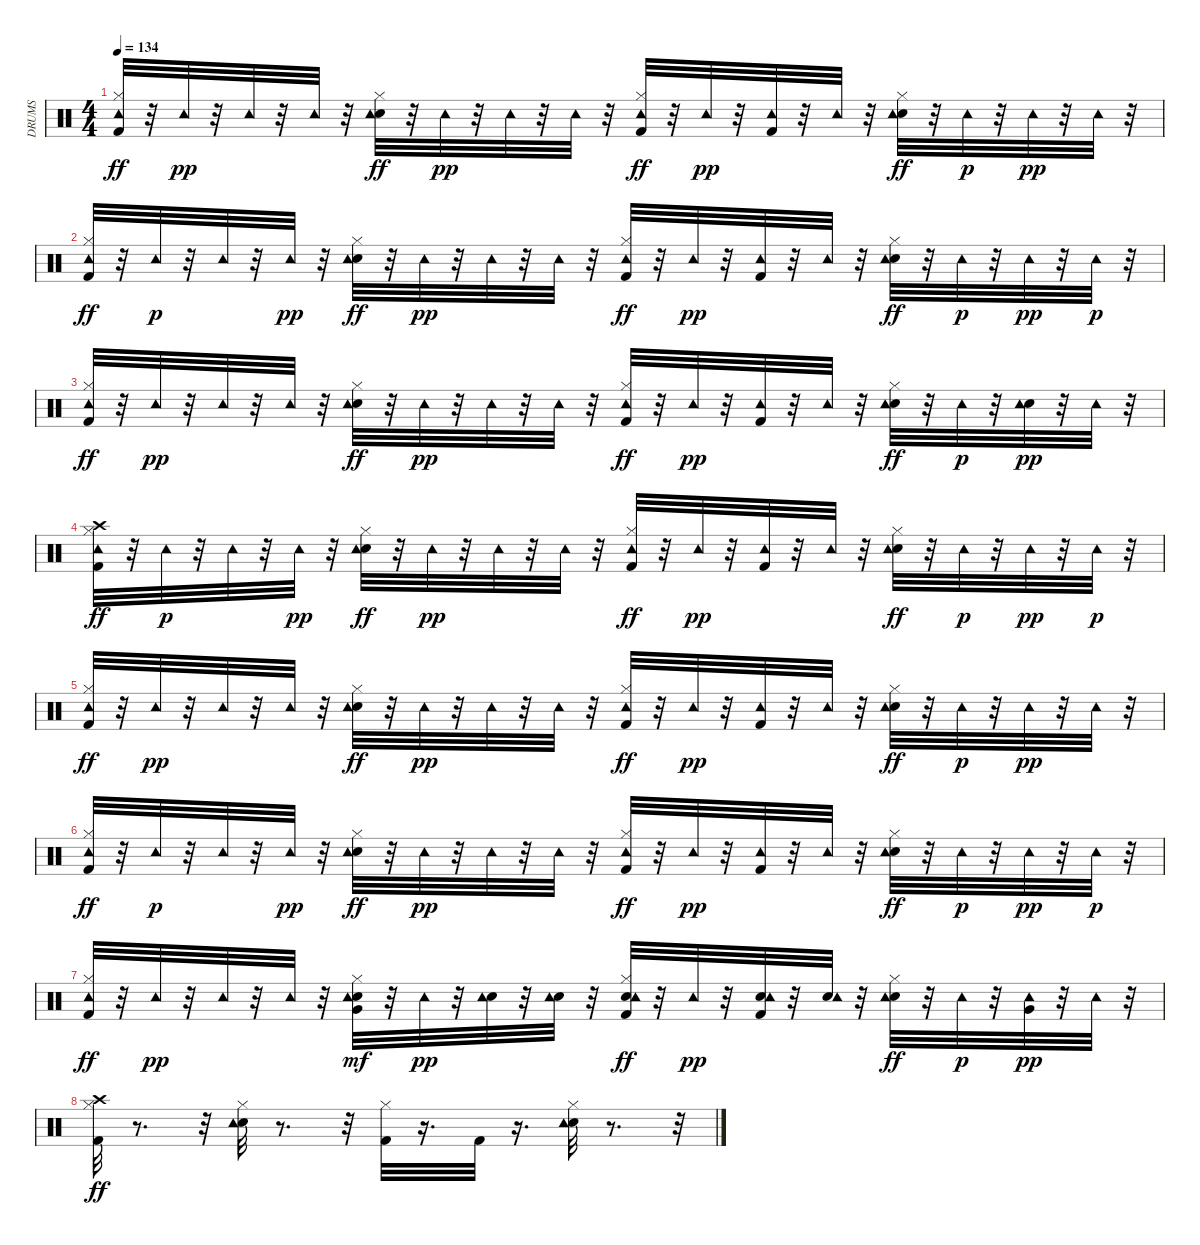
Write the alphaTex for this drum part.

\track ("DRUMS" "DRUMS") {instrument percussion}
\staff {score}
\articulation defaults
\ts (4 4)
\tempo 134
\clef neutral
\ks c
("Kick (hit) 2" "Hi-Hat (closed)" "Tambourine (hit)").32{dy ff} r.32 "Tambourine (hit)".32{dy pp} r.32 "Tambourine (hit)".32 r.32 "Tambourine (hit)".32 r.32 ("Snare (hit) 2" "Hi-Hat (closed)" "Tambourine (hit)").32{dy ff} r.32 "Tambourine (hit)".32{dy pp} r.32 "Tambourine (hit)".32 r.32 "Tambourine (hit)".32 r.32 ("Kick (hit) 2" "Hi-Hat (closed)" "Tambourine (hit)").32{dy ff} r.32 "Tambourine (hit)".32{dy pp} r.32 ("Kick (hit) 2" "Tambourine (hit)").32 r.32 "Tambourine (hit)".32 r.32 ("Snare (hit) 2" "Hi-Hat (closed)" "Tambourine (hit)").32{dy ff} r.32 "Tambourine (hit)".32{dy p} r.32 "Tambourine (hit)".32{dy pp} r.32 "Tambourine (hit)".32 r.32 |
("Kick (hit) 2" "Hi-Hat (closed)" "Tambourine (hit)").32{dy ff} r.32 "Tambourine (hit)".32{dy p} r.32 "Tambourine (hit)".32 r.32 "Tambourine (hit)".32{dy pp} r.32 ("Snare (hit) 2" "Hi-Hat (closed)" "Tambourine (hit)").32{dy ff} r.32 "Tambourine (hit)".32{dy pp} r.32 "Tambourine (hit)".32 r.32 "Tambourine (hit)".32 r.32 ("Kick (hit) 2" "Hi-Hat (closed)" "Tambourine (hit)").32{dy ff} r.32 "Tambourine (hit)".32{dy pp} r.32 ("Kick (hit) 2" "Tambourine (hit)").32 r.32 "Tambourine (hit)".32 r.32 ("Snare (hit) 2" "Hi-Hat (closed)" "Tambourine (hit)").32{dy ff} r.32 "Tambourine (hit)".32{dy p} r.32 "Tambourine (hit)".32{dy pp} r.32 "Tambourine (hit)".32{dy p} r.32 |
("Kick (hit) 2" "Hi-Hat (closed)" "Tambourine (hit)").32{dy ff} r.32 "Tambourine (hit)".32{dy pp} r.32 "Tambourine (hit)".32 r.32 "Tambourine (hit)".32 r.32 ("Snare (hit) 2" "Hi-Hat (closed)" "Tambourine (hit)").32{dy ff} r.32 "Tambourine (hit)".32{dy pp} r.32 "Tambourine (hit)".32 r.32 "Tambourine (hit)".32 r.32 ("Kick (hit) 2" "Hi-Hat (closed)" "Tambourine (hit)").32{dy ff} r.32 "Tambourine (hit)".32{dy pp} r.32 ("Kick (hit) 2" "Tambourine (hit)").32 r.32 "Tambourine (hit)".32 r.32 ("Snare (hit) 2" "Hi-Hat (closed)" "Tambourine (hit)").32{dy ff} r.32 "Tambourine (hit)".32{dy p} r.32 ("Snare (hit) 2" "Tambourine (hit)").32{dy pp} r.32 "Tambourine (hit)".32 r.32 |
("Kick (hit) 2" "Hi-Hat (closed)" "Crash high (hit)" "Tambourine (hit)").32{dy ff} r.32 "Tambourine (hit)".32{dy p} r.32 "Tambourine (hit)".32 r.32 "Tambourine (hit)".32{dy pp} r.32 ("Snare (hit) 2" "Hi-Hat (closed)" "Tambourine (hit)").32{dy ff} r.32 "Tambourine (hit)".32{dy pp} r.32 "Tambourine (hit)".32 r.32 "Tambourine (hit)".32 r.32 ("Kick (hit) 2" "Hi-Hat (closed)" "Tambourine (hit)").32{dy ff} r.32 "Tambourine (hit)".32{dy pp} r.32 ("Kick (hit) 2" "Tambourine (hit)").32 r.32 "Tambourine (hit)".32 r.32 ("Snare (hit) 2" "Hi-Hat (closed)" "Tambourine (hit)").32{dy ff} r.32 "Tambourine (hit)".32{dy p} r.32 "Tambourine (hit)".32{dy pp} r.32 "Tambourine (hit)".32{dy p} r.32 |
("Kick (hit) 2" "Hi-Hat (closed)" "Tambourine (hit)").32{dy ff} r.32 "Tambourine (hit)".32{dy pp} r.32 "Tambourine (hit)".32 r.32 "Tambourine (hit)".32 r.32 ("Snare (hit) 2" "Hi-Hat (closed)" "Tambourine (hit)").32{dy ff} r.32 "Tambourine (hit)".32{dy pp} r.32 "Tambourine (hit)".32 r.32 "Tambourine (hit)".32 r.32 ("Kick (hit) 2" "Hi-Hat (closed)" "Tambourine (hit)").32{dy ff} r.32 "Tambourine (hit)".32{dy pp} r.32 ("Kick (hit) 2" "Tambourine (hit)").32 r.32 "Tambourine (hit)".32 r.32 ("Snare (hit) 2" "Hi-Hat (closed)" "Tambourine (hit)").32{dy ff} r.32 "Tambourine (hit)".32{dy p} r.32 "Tambourine (hit)".32{dy pp} r.32 "Tambourine (hit)".32 r.32 |
("Kick (hit) 2" "Hi-Hat (closed)" "Tambourine (hit)").32{dy ff} r.32 "Tambourine (hit)".32{dy p} r.32 "Tambourine (hit)".32 r.32 "Tambourine (hit)".32{dy pp} r.32 ("Snare (hit) 2" "Hi-Hat (closed)" "Tambourine (hit)").32{dy ff} r.32 "Tambourine (hit)".32{dy pp} r.32 "Tambourine (hit)".32 r.32 "Tambourine (hit)".32 r.32 ("Kick (hit) 2" "Hi-Hat (closed)" "Tambourine (hit)").32{dy ff} r.32 "Tambourine (hit)".32{dy pp} r.32 ("Kick (hit) 2" "Tambourine (hit)").32 r.32 "Tambourine (hit)".32 r.32 ("Snare (hit) 2" "Hi-Hat (closed)" "Tambourine (hit)").32{dy ff} r.32 "Tambourine (hit)".32{dy p} r.32 "Tambourine (hit)".32{dy pp} r.32 "Tambourine (hit)".32{dy p} r.32 |
("Kick (hit) 2" "Hi-Hat (closed)" "Tambourine (hit)").32{dy ff} r.32 "Tambourine (hit)".32{dy pp} r.32 "Tambourine (hit)".32 r.32 "Tambourine (hit)".32 r.32 ("Snare (hit) 2" "Hi-Hat (closed)" "Very Low Tom (hit)" "Tambourine (hit)").32{dy mf} r.32 "Tambourine (hit)".32{dy pp} r.32 ("Snare (hit) 2" "Tambourine (hit)").32 r.32 ("Snare (hit) 2" "Tambourine (hit)").32 r.32 ("Kick (hit) 2" "Snare (hit) 2" "Hi-Hat (closed)" "Tambourine (hit)").32{dy ff} r.32 "Tambourine (hit)".32{dy pp} r.32 ("Kick (hit) 2" "Snare (hit) 2" "Tambourine (hit)").32 r.32 ("Snare (hit) 2" "Tambourine (hit)").32 r.32 ("Snare (hit) 2" "Hi-Hat (closed)" "Tambourine (hit)").32{dy ff} r.32 "Tambourine (hit)".32{dy p} r.32 ("Very Low Tom (hit)" "Tambourine (hit)").32{dy pp} r.32 "Tambourine (hit)".32 r.32 |
("Kick (hit) 2" "Hi-Hat (closed)" "Crash high (hit)").32{dy ff} r.8{d} r.32 ("Snare (hit) 2" "Hi-Hat (closed)" "Tambourine (hit)").32 r.8{d} r.32 ("Kick (hit) 2" "Hi-Hat (closed)").32 r.16{d} "Kick (hit) 2".32 r.16{d} ("Snare (hit) 2" "Hi-Hat (closed)" "Tambourine (hit)").32 r.8{d} r.32
